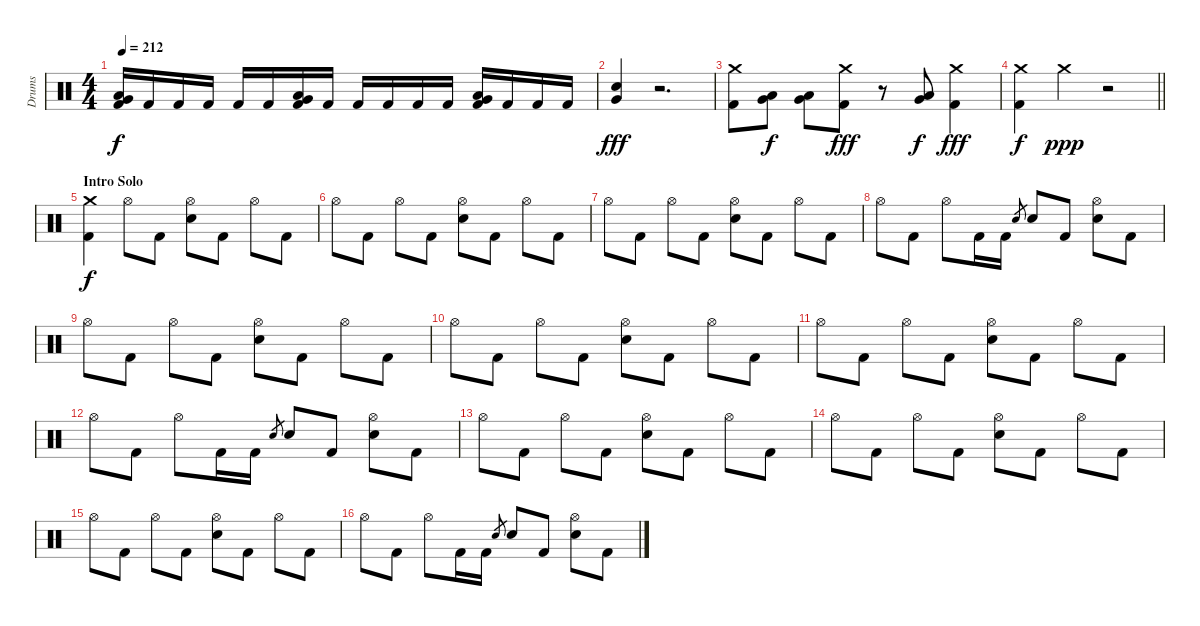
\track ("Drums" "Drums") {instrument percussion}
\staff {score}
\articulation defaults
\ts (4 4)
\tempo 212
\clef neutral
\ks c
("Low Tom (hit)" "Very Low Tom (hit)" "Kick (hit) 2").16{dy f} "Kick (hit) 2".16 "Kick (hit) 2".16 "Kick (hit) 2".16 "Kick (hit) 2".16 "Kick (hit) 2".16 ("Low Tom (hit)" "Very Low Tom (hit)" "Kick (hit) 2").16 "Kick (hit) 2".16 "Kick (hit) 2".16 "Kick (hit) 2".16 "Kick (hit) 2".16 "Kick (hit) 2".16 ("Low Tom (hit)" "Very Low Tom (hit)" "Kick (hit) 2").16 "Kick (hit) 2".16 "Kick (hit) 2".16 "Kick (hit) 2".16 |
("Electric Snare (hit)" "Very Low Tom (hit)").4{dy fff} r.2{d} |
("Crash medium (hit)" "Kick (hit) 2").8 ("Low Tom (hit)" "Very Low Tom (hit)").8{dy f} ("Low Tom (hit)" "Very Low Tom (hit)").8 ("Crash medium (hit)" "Kick (hit) 2").8{dy fff} r.8 ("Low Tom (hit)" "Very Low Tom (hit)").8{dy f} ("Crash medium (hit)" "Kick (hit) 2").4{dy fff} |
\barLineRight lightlight
("Crash medium (hit)" "Kick (hit) 2").4{dy f} "Crash medium (hit)".4{dy ppp} r.2 |
\section ("" "Intro Solo")
("Crash medium (hit)" "Kick (hit) 2").4{dy f} "Hi-Hat (open)".8 "Kick (hit) 2".8 ("Hi-Hat (open)" "Electric Snare (hit)").8 "Kick (hit) 2".8 "Hi-Hat (open)".8 "Kick (hit) 2".8 |
"Hi-Hat (open)".8 "Kick (hit) 2".8 "Hi-Hat (open)".8 "Kick (hit) 2".8 ("Hi-Hat (open)" "Electric Snare (hit)").8 "Kick (hit) 2".8 "Hi-Hat (open)".8 "Kick (hit) 2".8 |
"Hi-Hat (open)".8 "Kick (hit) 2".8 "Hi-Hat (open)".8 "Kick (hit) 2".8 ("Hi-Hat (open)" "Electric Snare (hit)").8 "Kick (hit) 2".8 "Hi-Hat (open)".8 "Kick (hit) 2".8 |
"Hi-Hat (open)".8 "Kick (hit) 2".8 "Hi-Hat (open)".8 "Kick (hit) 2".16 "Kick (hit) 2".16 "Electric Snare (hit)".8{gr} "Electric Snare (hit)".8 "Kick (hit) 2".8 ("Hi-Hat (open)" "Electric Snare (hit)").8 "Kick (hit) 2".8 |
"Hi-Hat (open)".8 "Kick (hit) 2".8 "Hi-Hat (open)".8 "Kick (hit) 2".8 ("Hi-Hat (open)" "Electric Snare (hit)").8 "Kick (hit) 2".8 "Hi-Hat (open)".8 "Kick (hit) 2".8 |
"Hi-Hat (open)".8 "Kick (hit) 2".8 "Hi-Hat (open)".8 "Kick (hit) 2".8 ("Hi-Hat (open)" "Electric Snare (hit)").8 "Kick (hit) 2".8 "Hi-Hat (open)".8 "Kick (hit) 2".8 |
"Hi-Hat (open)".8 "Kick (hit) 2".8 "Hi-Hat (open)".8 "Kick (hit) 2".8 ("Hi-Hat (open)" "Electric Snare (hit)").8 "Kick (hit) 2".8 "Hi-Hat (open)".8 "Kick (hit) 2".8 |
"Hi-Hat (open)".8 "Kick (hit) 2".8 "Hi-Hat (open)".8 "Kick (hit) 2".16 "Kick (hit) 2".16 "Electric Snare (hit)".8{gr} "Electric Snare (hit)".8 "Kick (hit) 2".8 ("Hi-Hat (open)" "Electric Snare (hit)").8 "Kick (hit) 2".8 |
"Hi-Hat (open)".8 "Kick (hit) 2".8 "Hi-Hat (open)".8 "Kick (hit) 2".8 ("Hi-Hat (open)" "Electric Snare (hit)").8 "Kick (hit) 2".8 "Hi-Hat (open)".8 "Kick (hit) 2".8 |
"Hi-Hat (open)".8 "Kick (hit) 2".8 "Hi-Hat (open)".8 "Kick (hit) 2".8 ("Hi-Hat (open)" "Electric Snare (hit)").8 "Kick (hit) 2".8 "Hi-Hat (open)".8 "Kick (hit) 2".8 |
"Hi-Hat (open)".8 "Kick (hit) 2".8 "Hi-Hat (open)".8 "Kick (hit) 2".8 ("Hi-Hat (open)" "Electric Snare (hit)").8 "Kick (hit) 2".8 "Hi-Hat (open)".8 "Kick (hit) 2".8 |
"Hi-Hat (open)".8 "Kick (hit) 2".8 "Hi-Hat (open)".8 "Kick (hit) 2".16 "Kick (hit) 2".16 "Electric Snare (hit)".8{gr} "Electric Snare (hit)".8 "Kick (hit) 2".8 ("Hi-Hat (open)" "Electric Snare (hit)").8 "Kick (hit) 2".8
